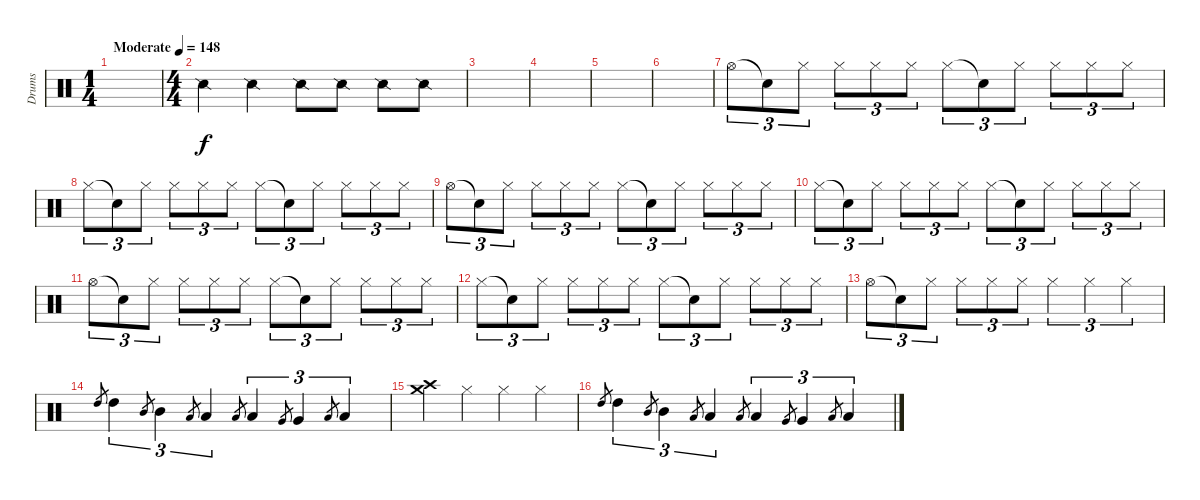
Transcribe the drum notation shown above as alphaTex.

\track ("Drums" "Drums") {instrument percussion}
\staff {score}
\articulation defaults
\ts (1 4)
\tempo (148 "Moderate")
\clef neutral
\ks c
|
\ts (4 4)
"Snare (side stick) 2".4 "Snare (side stick) 2".4 "Snare (side stick) 2".8 "Snare (side stick) 2".8 "Snare (side stick) 2".8 "Snare (side stick) 2".8 |
|
|
|
|
"Hi-Hat (open)".8{tu (3 2)} "Snare (hit)"{t}.8{tu (3 2)} "Hi-Hat (closed)".8{tu (3 2)} "Hi-Hat (closed)".8{tu (3 2)} "Hi-Hat (closed)".8{tu (3 2)} "Hi-Hat (closed)".8{tu (3 2)} "Hi-Hat (closed)".8{tu (3 2)} "Snare (hit)"{t}.8{tu (3 2)} "Hi-Hat (closed)".8{tu (3 2)} "Hi-Hat (closed)".8{tu (3 2)} "Hi-Hat (closed)".8{tu (3 2)} "Hi-Hat (closed)".8{tu (3 2)} |
"Hi-Hat (closed)".8{tu (3 2)} "Snare (hit)"{t}.8{tu (3 2)} "Hi-Hat (closed)".8{tu (3 2)} "Hi-Hat (closed)".8{tu (3 2)} "Hi-Hat (closed)".8{tu (3 2)} "Hi-Hat (closed)".8{tu (3 2)} "Hi-Hat (closed)".8{tu (3 2)} "Snare (hit)"{t}.8{tu (3 2)} "Hi-Hat (closed)".8{tu (3 2)} "Hi-Hat (closed)".8{tu (3 2)} "Hi-Hat (closed)".8{tu (3 2)} "Hi-Hat (closed)".8{tu (3 2)} |
"Hi-Hat (open)".8{tu (3 2)} "Snare (hit)"{t}.8{tu (3 2)} "Hi-Hat (closed)".8{tu (3 2)} "Hi-Hat (closed)".8{tu (3 2)} "Hi-Hat (closed)".8{tu (3 2)} "Hi-Hat (closed)".8{tu (3 2)} "Hi-Hat (closed)".8{tu (3 2)} "Snare (hit)"{t}.8{tu (3 2)} "Hi-Hat (closed)".8{tu (3 2)} "Hi-Hat (closed)".8{tu (3 2)} "Hi-Hat (closed)".8{tu (3 2)} "Hi-Hat (closed)".8{tu (3 2)} |
"Hi-Hat (closed)".8{tu (3 2)} "Snare (hit)"{t}.8{tu (3 2)} "Hi-Hat (closed)".8{tu (3 2)} "Hi-Hat (closed)".8{tu (3 2)} "Hi-Hat (closed)".8{tu (3 2)} "Hi-Hat (closed)".8{tu (3 2)} "Hi-Hat (closed)".8{tu (3 2)} "Snare (hit)"{t}.8{tu (3 2)} "Hi-Hat (closed)".8{tu (3 2)} "Hi-Hat (closed)".8{tu (3 2)} "Hi-Hat (closed)".8{tu (3 2)} "Hi-Hat (closed)".8{tu (3 2)} |
"Hi-Hat (open)".8{tu (3 2)} "Snare (hit)"{t}.8{tu (3 2)} "Hi-Hat (closed)".8{tu (3 2)} "Hi-Hat (closed)".8{tu (3 2)} "Hi-Hat (closed)".8{tu (3 2)} "Hi-Hat (closed)".8{tu (3 2)} "Hi-Hat (closed)".8{tu (3 2)} "Snare (hit)"{t}.8{tu (3 2)} "Hi-Hat (closed)".8{tu (3 2)} "Hi-Hat (closed)".8{tu (3 2)} "Hi-Hat (closed)".8{tu (3 2)} "Hi-Hat (closed)".8{tu (3 2)} |
"Hi-Hat (closed)".8{tu (3 2)} "Snare (hit)"{t}.8{tu (3 2)} "Hi-Hat (closed)".8{tu (3 2)} "Hi-Hat (closed)".8{tu (3 2)} "Hi-Hat (closed)".8{tu (3 2)} "Hi-Hat (closed)".8{tu (3 2)} "Hi-Hat (closed)".8{tu (3 2)} "Snare (hit)"{t}.8{tu (3 2)} "Hi-Hat (closed)".8{tu (3 2)} "Hi-Hat (closed)".8{tu (3 2)} "Hi-Hat (closed)".8{tu (3 2)} "Hi-Hat (closed)".8{tu (3 2)} |
"Hi-Hat (open)".8{tu (3 2)} "Snare (hit)"{t}.8{tu (3 2)} "Hi-Hat (closed)".8{tu (3 2)} "Hi-Hat (closed)".8{tu (3 2)} "Hi-Hat (closed)".8{tu (3 2)} "Hi-Hat (closed)".8{tu (3 2)} "Hi-Hat (closed)".4{tu (3 2)} "Hi-Hat (closed)".4{tu (3 2)} "Hi-Hat (closed)".4{tu (3 2)} |
"High Tom (hit)".8{gr} "High Tom (hit)".4{tu (3 2)} "Mid Tom (hit)".8{gr} "Mid Tom (hit)".4{tu (3 2)} "Low Tom (hit)".8{gr} "Low Tom (hit)".4{tu (3 2)} "Low Tom (hit)".8{gr} "Low Tom (hit)".4{tu (3 2)} "Very Low Tom (hit)".8{gr} "Very Low Tom (hit)".4{tu (3 2)} "Low Floor Tom (hit)".8{gr} "Low Floor Tom (hit)".4{tu (3 2)} |
("Crash medium (hit)" "Crash high (hit)").4 "Hi-Hat (closed)".4 "Hi-Hat (closed)".4 "Hi-Hat (closed)".4 |
"High Tom (hit)".8{gr} "High Tom (hit)".4{tu (3 2)} "Mid Tom (hit)".8{gr} "Mid Tom (hit)".4{tu (3 2)} "Low Tom (hit)".8{gr} "Low Tom (hit)".4{tu (3 2)} "Low Tom (hit)".8{gr} "Low Tom (hit)".4{tu (3 2)} "Very Low Tom (hit)".8{gr} "Very Low Tom (hit)".4{tu (3 2)} "Low Floor Tom (hit)".8{gr} "Low Floor Tom (hit)".4{tu (3 2)}
